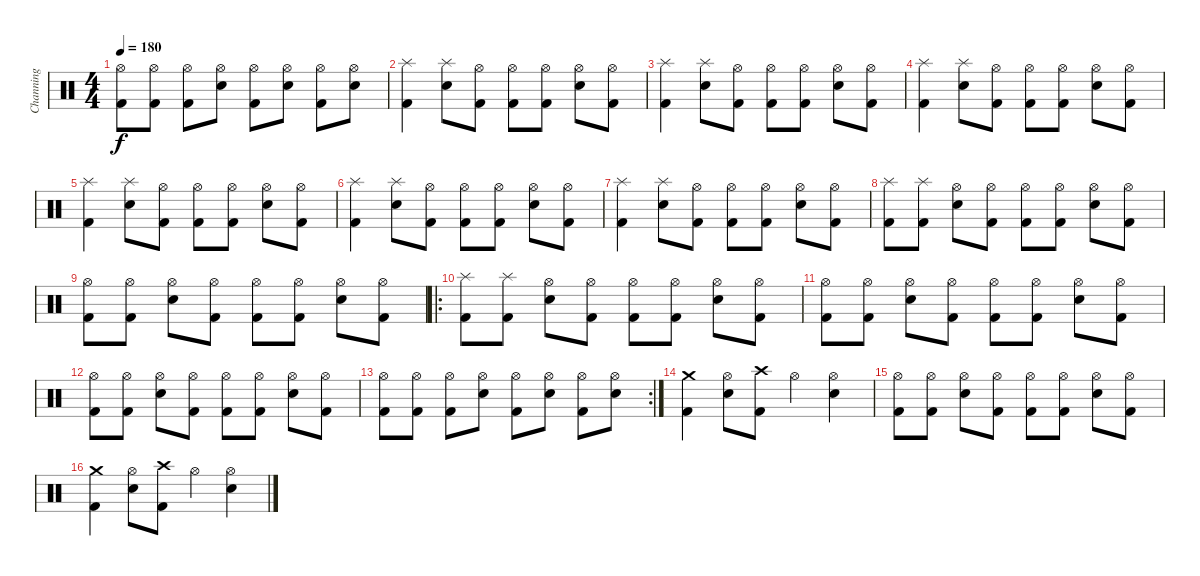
\track ("Channing" "Channing") {instrument percussion}
\staff {score}
\articulation defaults
\ts (4 4)
\tempo 180
\clef neutral
\ks c
("Hi-Hat (open)" "Kick (hit) 2").8{dy f} ("Hi-Hat (open)" "Kick (hit) 2").8 ("Hi-Hat (open)" "Kick (hit) 2").8 ("Hi-Hat (open)" "Snare (hit) 2").8 ("Hi-Hat (open)" "Kick (hit) 2").8 ("Hi-Hat (open)" "Snare (hit) 2").8 ("Hi-Hat (open)" "Kick (hit) 2").8 ("Hi-Hat (open)" "Snare (hit) 2").8 |
("Splash (hit)" "Kick (hit) 2").4 ("Splash (hit)" "Snare (hit) 2").8 ("Hi-Hat (open)" "Kick (hit) 2").8 ("Hi-Hat (open)" "Kick (hit) 2").8 ("Hi-Hat (open)" "Kick (hit) 2").8 ("Hi-Hat (open)" "Snare (hit) 2").8 ("Hi-Hat (open)" "Kick (hit) 2").8 |
("Splash (hit)" "Kick (hit) 2").4 ("Splash (hit)" "Snare (hit) 2").8 ("Hi-Hat (open)" "Kick (hit) 2").8 ("Hi-Hat (open)" "Kick (hit) 2").8 ("Hi-Hat (open)" "Kick (hit) 2").8 ("Hi-Hat (open)" "Snare (hit) 2").8 ("Hi-Hat (open)" "Kick (hit) 2").8 |
("Splash (hit)" "Kick (hit) 2").4 ("Splash (hit)" "Snare (hit) 2").8 ("Hi-Hat (open)" "Kick (hit) 2").8 ("Hi-Hat (open)" "Kick (hit) 2").8 ("Hi-Hat (open)" "Kick (hit) 2").8 ("Hi-Hat (open)" "Snare (hit) 2").8 ("Hi-Hat (open)" "Kick (hit) 2").8 |
("Splash (hit)" "Kick (hit) 2").4 ("Splash (hit)" "Snare (hit) 2").8 ("Hi-Hat (open)" "Kick (hit) 2").8 ("Hi-Hat (open)" "Kick (hit) 2").8 ("Hi-Hat (open)" "Kick (hit) 2").8 ("Hi-Hat (open)" "Snare (hit) 2").8 ("Hi-Hat (open)" "Kick (hit) 2").8 |
("Splash (hit)" "Kick (hit) 2").4 ("Splash (hit)" "Snare (hit) 2").8 ("Hi-Hat (open)" "Kick (hit) 2").8 ("Hi-Hat (open)" "Kick (hit) 2").8 ("Hi-Hat (open)" "Kick (hit) 2").8 ("Hi-Hat (open)" "Snare (hit) 2").8 ("Hi-Hat (open)" "Kick (hit) 2").8 |
("Splash (hit)" "Kick (hit) 2").4 ("Splash (hit)" "Snare (hit) 2").8 ("Hi-Hat (open)" "Kick (hit) 2").8 ("Hi-Hat (open)" "Kick (hit) 2").8 ("Hi-Hat (open)" "Kick (hit) 2").8 ("Hi-Hat (open)" "Snare (hit) 2").8 ("Hi-Hat (open)" "Kick (hit) 2").8 |
("Splash (hit)" "Kick (hit) 2").8 ("Splash (hit)" "Kick (hit) 2").8 ("Hi-Hat (open)" "Snare (hit) 2").8 ("Hi-Hat (open)" "Kick (hit) 2").8 ("Hi-Hat (open)" "Kick (hit) 2").8 ("Hi-Hat (open)" "Kick (hit) 2").8 ("Hi-Hat (open)" "Snare (hit) 2").8 ("Hi-Hat (open)" "Kick (hit) 2").8 |
("Hi-Hat (open)" "Kick (hit) 2").8 ("Hi-Hat (open)" "Kick (hit) 2").8 ("Hi-Hat (open)" "Snare (hit) 2").8 ("Hi-Hat (open)" "Kick (hit) 2").8 ("Hi-Hat (open)" "Kick (hit) 2").8 ("Hi-Hat (open)" "Kick (hit) 2").8 ("Hi-Hat (open)" "Snare (hit) 2").8 ("Hi-Hat (open)" "Kick (hit) 2").8 |
\ro
("Splash (hit)" "Kick (hit) 2").8 ("Splash (hit)" "Kick (hit) 2").8 ("Hi-Hat (open)" "Snare (hit) 2").8 ("Hi-Hat (open)" "Kick (hit) 2").8 ("Hi-Hat (open)" "Kick (hit) 2").8 ("Hi-Hat (open)" "Kick (hit) 2").8 ("Hi-Hat (open)" "Snare (hit) 2").8 ("Hi-Hat (open)" "Kick (hit) 2").8 |
("Hi-Hat (open)" "Kick (hit) 2").8 ("Hi-Hat (open)" "Kick (hit) 2").8 ("Hi-Hat (open)" "Snare (hit) 2").8 ("Hi-Hat (open)" "Kick (hit) 2").8 ("Hi-Hat (open)" "Kick (hit) 2").8 ("Hi-Hat (open)" "Kick (hit) 2").8 ("Hi-Hat (open)" "Snare (hit) 2").8 ("Hi-Hat (open)" "Kick (hit) 2").8 |
("Hi-Hat (open)" "Kick (hit) 2").8 ("Hi-Hat (open)" "Kick (hit) 2").8 ("Hi-Hat (open)" "Snare (hit) 2").8 ("Hi-Hat (open)" "Kick (hit) 2").8 ("Hi-Hat (open)" "Kick (hit) 2").8 ("Hi-Hat (open)" "Kick (hit) 2").8 ("Hi-Hat (open)" "Snare (hit) 2").8 ("Hi-Hat (open)" "Kick (hit) 2").8 |
\rc 2
("Hi-Hat (open)" "Kick (hit) 2").8 ("Hi-Hat (open)" "Kick (hit) 2").8 ("Hi-Hat (open)" "Kick (hit) 2").8 ("Hi-Hat (open)" "Snare (hit) 2").8 ("Hi-Hat (open)" "Kick (hit) 2").8 ("Hi-Hat (open)" "Snare (hit) 2").8 ("Hi-Hat (open)" "Kick (hit) 2").8 ("Hi-Hat (open)" "Snare (hit) 2").8 |
("Crash medium (hit)" "Kick (hit) 2").4 ("Hi-Hat (open)" "Snare (hit) 2").8 ("Crash high (hit)" "Kick (hit) 2").8 "Hi-Hat (open)".4 ("Hi-Hat (open)" "Snare (hit) 2").4 |
("Hi-Hat (open)" "Kick (hit) 2").8 ("Hi-Hat (open)" "Kick (hit) 2").8 ("Hi-Hat (open)" "Snare (hit) 2").8 ("Hi-Hat (open)" "Kick (hit) 2").8 ("Hi-Hat (open)" "Kick (hit) 2").8 ("Hi-Hat (open)" "Kick (hit) 2").8 ("Hi-Hat (open)" "Snare (hit) 2").8 ("Hi-Hat (open)" "Kick (hit) 2").8 |
("Crash medium (hit)" "Kick (hit) 2").4 ("Hi-Hat (open)" "Snare (hit) 2").8 ("Crash high (hit)" "Kick (hit) 2").8 "Hi-Hat (open)".4 ("Hi-Hat (open)" "Snare (hit) 2").4
